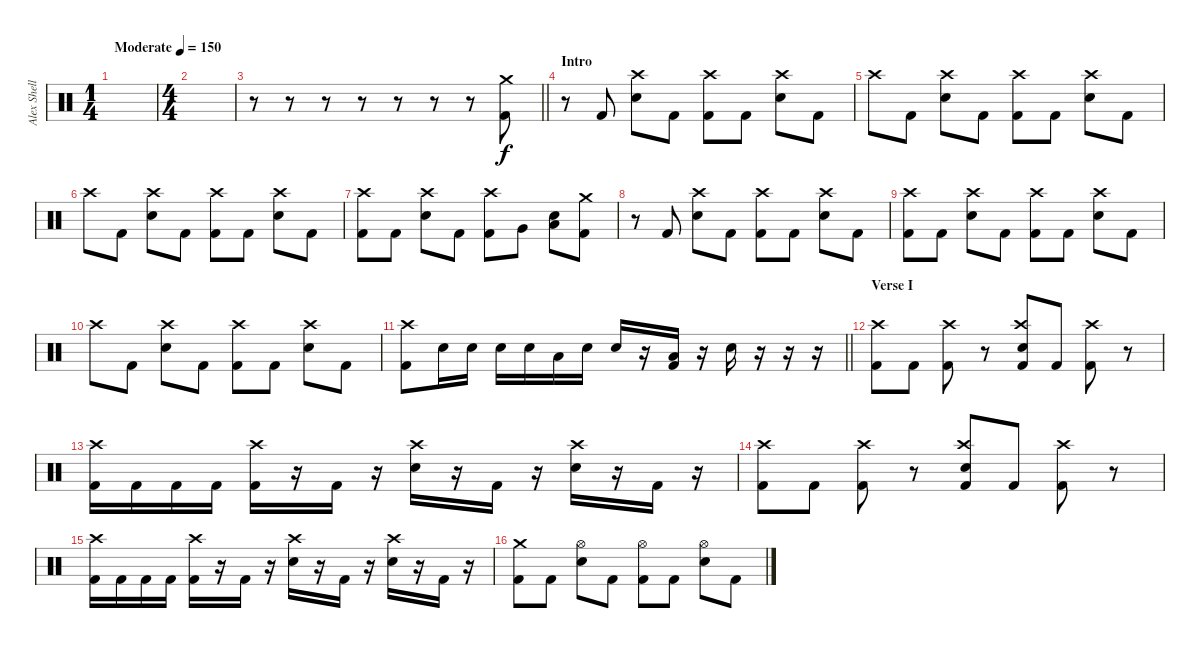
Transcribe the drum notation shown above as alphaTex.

\track ("Alex Shellnutt" "Alex Shell") {instrument percussion}
\staff {score}
\articulation defaults
\ts (1 4)
\tempo (150 "Moderate")
\clef neutral
\ks c
|
\ts (4 4)
|
\barLineRight lightlight
r.8 r.8 r.8 r.8 r.8 r.8 r.8 ("Crash medium (hit)" "Kick (hit) 2").8 |
\section ("" "Intro")
r.8 "Kick (hit) 2".8 ("Crash high (hit)" "Snare (hit) 2").8 "Kick (hit) 2".8 ("Crash high (hit)" "Kick (hit) 2").8 "Kick (hit) 2".8 ("Crash high (hit)" "Snare (hit) 2").8 "Kick (hit) 2".8 |
"Crash high (hit)".8 "Kick (hit) 2".8 ("Crash high (hit)" "Snare (hit) 2").8 "Kick (hit) 2".8 ("Crash high (hit)" "Kick (hit) 2").8 "Kick (hit) 2".8 ("Crash high (hit)" "Snare (hit) 2").8 "Kick (hit) 2".8 |
"Crash high (hit)".8 "Kick (hit) 2".8 ("Crash high (hit)" "Snare (hit) 2").8 "Kick (hit) 2".8 ("Crash high (hit)" "Kick (hit) 2").8 "Kick (hit) 2".8 ("Crash high (hit)" "Snare (hit) 2").8 "Kick (hit) 2".8 |
("Crash high (hit)" "Kick (hit) 2").8 "Kick (hit) 2".8 ("Crash high (hit)" "Snare (hit) 2").8 "Kick (hit) 2".8 ("Crash high (hit)" "Kick (hit) 2").8 "Very Low Tom (hit)".8 ("Low Floor Tom (hit)" "Snare (hit) 2").8 ("Crash medium (hit)" "Kick (hit) 2").8 |
r.8 "Kick (hit) 2".8 ("Crash high (hit)" "Snare (hit) 2").8 "Kick (hit) 2".8 ("Crash high (hit)" "Kick (hit) 2").8 "Kick (hit) 2".8 ("Crash high (hit)" "Snare (hit) 2").8 "Kick (hit) 2".8 |
("Crash high (hit)" "Kick (hit) 2").8 "Kick (hit) 2".8 ("Crash high (hit)" "Snare (hit) 2").8 "Kick (hit) 2".8 ("Crash high (hit)" "Kick (hit) 2").8 "Kick (hit) 2".8 ("Crash high (hit)" "Snare (hit) 2").8 "Kick (hit) 2".8 |
"Crash high (hit)".8 "Kick (hit) 2".8 ("Crash high (hit)" "Snare (hit) 2").8 "Kick (hit) 2".8 ("Crash high (hit)" "Kick (hit) 2").8 "Kick (hit) 2".8 ("Crash high (hit)" "Snare (hit) 2").8 "Kick (hit) 2".8 |
\barLineRight lightlight
("Crash high (hit)" "Kick (hit) 2").8 "Snare (hit) 2".16 "Snare (hit) 2".16 "Snare (hit) 2".16 "Snare (hit) 2".16 "Low Floor Tom (hit)".16 "Snare (hit) 2".16 "Snare (hit) 2".16 r.16 ("Low Floor Tom (hit)" "Kick (hit) 2").16 r.16 "Snare (hit) 2".16 r.16 r.16 r.16 |
\section ("" "Verse I")
("Crash high (hit)" "Kick (hit) 2").8 "Kick (hit) 2".8 ("Crash high (hit)" "Kick (hit) 2").8 r.8 ("Crash high (hit)" "Snare (hit) 2" "Kick (hit) 2").8 "Kick (hit) 2".8 ("Crash high (hit)" "Kick (hit) 2").8 r.8 |
("Crash high (hit)" "Kick (hit) 2").16 "Kick (hit) 2".16 "Kick (hit) 2".16 "Kick (hit) 2".16 ("Crash high (hit)" "Kick (hit) 2").16 r.16 "Kick (hit) 2".16 r.16 ("Crash high (hit)" "Snare (hit) 2").16 r.16 "Kick (hit) 2".16 r.16 ("Crash high (hit)" "Snare (hit) 2").16 r.16 "Kick (hit) 2".16 r.16 |
("Crash high (hit)" "Kick (hit) 2").8 "Kick (hit) 2".8 ("Crash high (hit)" "Kick (hit) 2").8 r.8 ("Crash high (hit)" "Snare (hit) 2" "Kick (hit) 2").8 "Kick (hit) 2".8 ("Crash high (hit)" "Kick (hit) 2").8 r.8 |
("Crash high (hit)" "Kick (hit) 2").16 "Kick (hit) 2".16 "Kick (hit) 2".16 "Kick (hit) 2".16 ("Crash high (hit)" "Kick (hit) 2").16 r.16 "Kick (hit) 2".16 r.16 ("Crash high (hit)" "Snare (hit) 2").16 r.16 "Kick (hit) 2".16 r.16 ("Crash high (hit)" "Snare (hit) 2").16 r.16 "Kick (hit) 2".16 r.16 |
("Crash medium (hit)" "Kick (hit) 2").8 "Kick (hit) 2".8 ("Hi-Hat (open)" "Snare (hit) 2").8 "Kick (hit) 2".8 ("Hi-Hat (open)" "Kick (hit) 2").8 "Kick (hit) 2".8 ("Hi-Hat (open)" "Snare (hit) 2").8 "Kick (hit) 2".8
